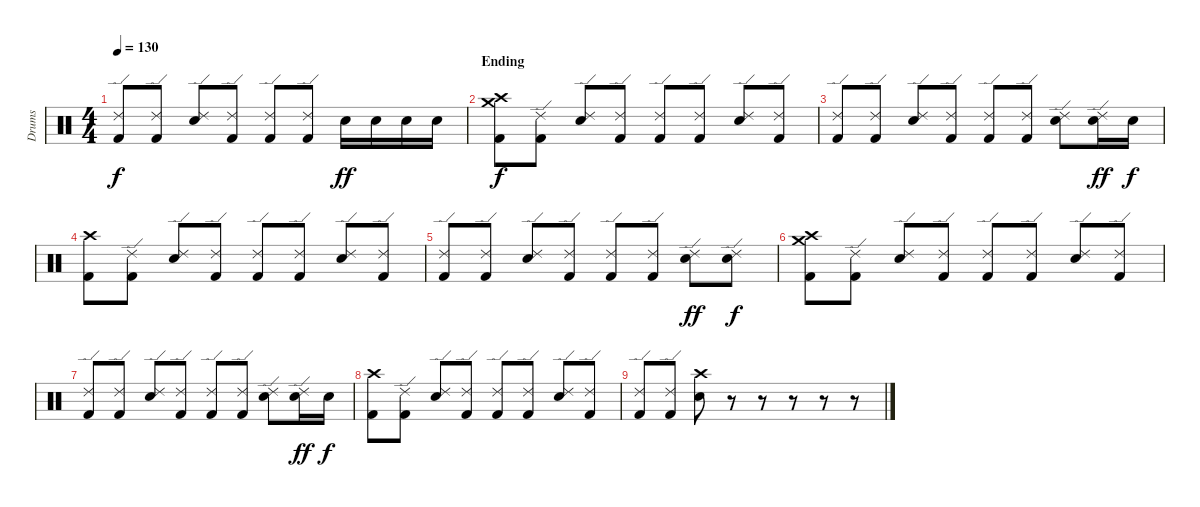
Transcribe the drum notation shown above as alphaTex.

\track ("Drums" "Drums") {instrument percussion}
\staff {score}
\articulation defaults
\ts (4 4)
\tempo 130
\clef neutral
\ks c
("Ride (edge) 2" "Kick (hit) 2").8{dy f} ("Ride (edge) 2" "Kick (hit) 2").8 ("Ride (edge) 2" "Electric Snare (hit)").8 ("Ride (edge) 2" "Kick (hit) 2").8 ("Ride (edge) 2" "Kick (hit) 2").8 ("Ride (edge) 2" "Kick (hit) 2").8 "Electric Snare (hit)".16{dy ff} "Electric Snare (hit)".16 "Electric Snare (hit)".16 "Electric Snare (hit)".16 |
\section ("" "Ending")
("Crash medium (hit)" "Crash high (hit)" "Kick (hit) 2").8{dy f} ("Ride (edge) 2" "Kick (hit) 2").8 ("Ride (edge) 2" "Electric Snare (hit)").8 ("Ride (edge) 2" "Kick (hit) 2").8 ("Ride (edge) 2" "Kick (hit) 2").8 ("Ride (edge) 2" "Kick (hit) 2").8 ("Ride (edge) 2" "Electric Snare (hit)").8 ("Ride (edge) 2" "Kick (hit) 2").8 |
("Ride (edge) 2" "Kick (hit) 2").8 ("Ride (edge) 2" "Kick (hit) 2").8 ("Ride (edge) 2" "Electric Snare (hit)").8 ("Ride (edge) 2" "Kick (hit) 2").8 ("Ride (edge) 2" "Kick (hit) 2").8 ("Ride (edge) 2" "Kick (hit) 2").8 ("Ride (edge) 2" "Electric Snare (hit)").8 ("Ride (edge) 2" "Electric Snare (hit)").16{dy ff} "Electric Snare (hit)".16{dy f} |
("Crash high (hit)" "Kick (hit) 2").8 ("Ride (edge) 2" "Kick (hit) 2").8 ("Ride (edge) 2" "Electric Snare (hit)").8 ("Ride (edge) 2" "Kick (hit) 2").8 ("Ride (edge) 2" "Kick (hit) 2").8 ("Ride (edge) 2" "Kick (hit) 2").8 ("Ride (edge) 2" "Electric Snare (hit)").8 ("Ride (edge) 2" "Kick (hit) 2").8 |
("Ride (edge) 2" "Kick (hit) 2").8 ("Ride (edge) 2" "Kick (hit) 2").8 ("Ride (edge) 2" "Electric Snare (hit)").8 ("Ride (edge) 2" "Kick (hit) 2").8 ("Ride (edge) 2" "Kick (hit) 2").8 ("Ride (edge) 2" "Kick (hit) 2").8 ("Ride (edge) 2" "Electric Snare (hit)").8{dy ff} ("Ride (edge) 2" "Electric Snare (hit)").8{dy f} |
("Crash medium (hit)" "Crash high (hit)" "Kick (hit) 2").8 ("Ride (edge) 2" "Kick (hit) 2").8 ("Ride (edge) 2" "Electric Snare (hit)").8 ("Ride (edge) 2" "Kick (hit) 2").8 ("Ride (edge) 2" "Kick (hit) 2").8 ("Ride (edge) 2" "Kick (hit) 2").8 ("Ride (edge) 2" "Electric Snare (hit)").8 ("Ride (edge) 2" "Kick (hit) 2").8 |
("Ride (edge) 2" "Kick (hit) 2").8 ("Ride (edge) 2" "Kick (hit) 2").8 ("Ride (edge) 2" "Electric Snare (hit)").8 ("Ride (edge) 2" "Kick (hit) 2").8 ("Ride (edge) 2" "Kick (hit) 2").8 ("Ride (edge) 2" "Kick (hit) 2").8 ("Ride (edge) 2" "Electric Snare (hit)").8 ("Ride (edge) 2" "Electric Snare (hit)").16{dy ff} "Electric Snare (hit)".16{dy f} |
("Crash high (hit)" "Kick (hit) 2").8 ("Ride (edge) 2" "Kick (hit) 2").8 ("Ride (edge) 2" "Electric Snare (hit)").8 ("Ride (edge) 2" "Kick (hit) 2").8 ("Ride (edge) 2" "Kick (hit) 2").8 ("Ride (edge) 2" "Kick (hit) 2").8 ("Ride (edge) 2" "Electric Snare (hit)").8 ("Ride (edge) 2" "Kick (hit) 2").8 |
("Ride (edge) 2" "Kick (hit) 2").8 ("Ride (edge) 2" "Kick (hit) 2").8 ("Crash high (hit)" "Electric Snare (hit)").8 r.8 r.8 r.8 r.8 r.8
